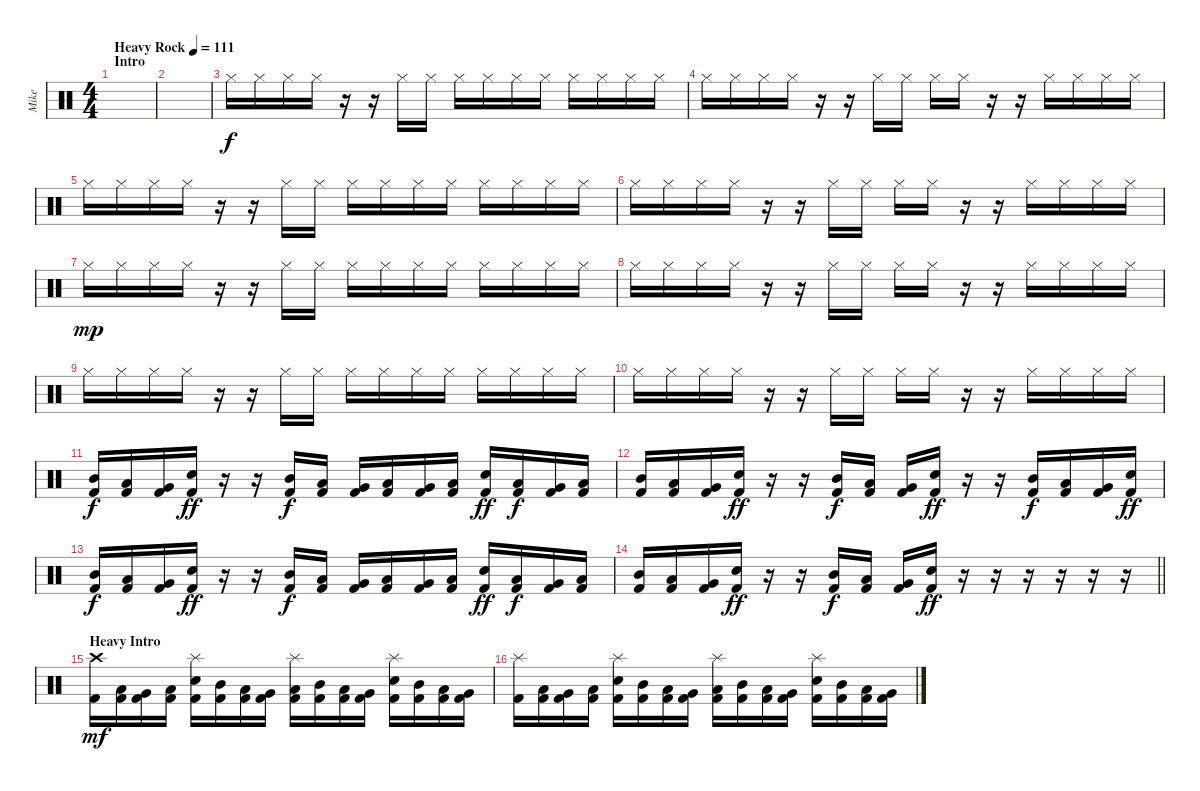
\track ("Mike" "Mike") {instrument percussion}
\staff {score}
\articulation defaults
\ts (4 4)
\section ("" "Intro")
\tempo (111 "Heavy Rock")
\clef neutral
\ks c
|
|
"Hi-Hat (closed)".16{balance 2} "Hi-Hat (closed)".16 "Hi-Hat (closed)".16 "Hi-Hat (closed)".16 r.16 r.16 "Hi-Hat (closed)".16 "Hi-Hat (closed)".16 "Hi-Hat (closed)".16 "Hi-Hat (closed)".16 "Hi-Hat (closed)".16 "Hi-Hat (closed)".16 "Hi-Hat (closed)".16 "Hi-Hat (closed)".16 "Hi-Hat (closed)".16 "Hi-Hat (closed)".16 |
"Hi-Hat (closed)".16 "Hi-Hat (closed)".16 "Hi-Hat (closed)".16 "Hi-Hat (closed)".16 r.16 r.16 "Hi-Hat (closed)".16 "Hi-Hat (closed)".16 "Hi-Hat (closed)".16 "Hi-Hat (closed)".16 r.16 r.16 "Hi-Hat (closed)".16 "Hi-Hat (closed)".16 "Hi-Hat (closed)".16 "Hi-Hat (closed)".16 |
"Hi-Hat (closed)".16 "Hi-Hat (closed)".16 "Hi-Hat (closed)".16 "Hi-Hat (closed)".16 r.16 r.16 "Hi-Hat (closed)".16 "Hi-Hat (closed)".16 "Hi-Hat (closed)".16 "Hi-Hat (closed)".16 "Hi-Hat (closed)".16 "Hi-Hat (closed)".16 "Hi-Hat (closed)".16 "Hi-Hat (closed)".16 "Hi-Hat (closed)".16 "Hi-Hat (closed)".16 |
"Hi-Hat (closed)".16 "Hi-Hat (closed)".16 "Hi-Hat (closed)".16 "Hi-Hat (closed)".16 r.16 r.16 "Hi-Hat (closed)".16 "Hi-Hat (closed)".16 "Hi-Hat (closed)".16 "Hi-Hat (closed)".16 r.16 r.16 "Hi-Hat (closed)".16 "Hi-Hat (closed)".16 "Hi-Hat (closed)".16 "Hi-Hat (closed)".16 |
"Hi-Hat (closed)".16{dy mp} "Hi-Hat (closed)".16 "Hi-Hat (closed)".16 "Hi-Hat (closed)".16 r.16 r.16 "Hi-Hat (closed)".16 "Hi-Hat (closed)".16 "Hi-Hat (closed)".16 "Hi-Hat (closed)".16 "Hi-Hat (closed)".16 "Hi-Hat (closed)".16 "Hi-Hat (closed)".16 "Hi-Hat (closed)".16 "Hi-Hat (closed)".16 "Hi-Hat (closed)".16 |
"Hi-Hat (closed)".16 "Hi-Hat (closed)".16 "Hi-Hat (closed)".16 "Hi-Hat (closed)".16 r.16 r.16 "Hi-Hat (closed)".16 "Hi-Hat (closed)".16 "Hi-Hat (closed)".16 "Hi-Hat (closed)".16 r.16 r.16 "Hi-Hat (closed)".16 "Hi-Hat (closed)".16 "Hi-Hat (closed)".16 "Hi-Hat (closed)".16 |
"Hi-Hat (closed)".16 "Hi-Hat (closed)".16 "Hi-Hat (closed)".16 "Hi-Hat (closed)".16 r.16 r.16 "Hi-Hat (closed)".16 "Hi-Hat (closed)".16 "Hi-Hat (closed)".16 "Hi-Hat (closed)".16 "Hi-Hat (closed)".16 "Hi-Hat (closed)".16 "Hi-Hat (closed)".16 "Hi-Hat (closed)".16 "Hi-Hat (closed)".16 "Hi-Hat (closed)".16 |
"Hi-Hat (closed)".16 "Hi-Hat (closed)".16 "Hi-Hat (closed)".16 "Hi-Hat (closed)".16 r.16 r.16 "Hi-Hat (closed)".16 "Hi-Hat (closed)".16 "Hi-Hat (closed)".16 "Hi-Hat (closed)".16 r.16 r.16 "Hi-Hat (closed)".16 "Hi-Hat (closed)".16 "Hi-Hat (closed)".16 "Hi-Hat (closed)".16 |
("Mid Tom (hit)" "Kick (hit) 2").16{dy f balance 8} ("Low Tom (hit)" "Kick (hit) 2").16 ("Very Low Tom (hit)" "Kick (hit) 2").16 ("Snare (hit) 2" "Kick (hit) 2").16{dy ff} r.16 r.16 ("Mid Tom (hit)" "Kick (hit) 2").16{dy f} ("Low Tom (hit)" "Kick (hit) 2").16 ("Very Low Tom (hit)" "Kick (hit) 2").16 ("Low Tom (hit)" "Kick (hit) 2").16 ("Very Low Tom (hit)" "Kick (hit) 2").16 ("Low Tom (hit)" "Kick (hit) 2").16 ("Snare (hit) 2" "Kick (hit) 2").16{dy ff} ("Low Tom (hit)" "Kick (hit) 2").16{dy f} ("Very Low Tom (hit)" "Kick (hit) 2").16 ("Low Tom (hit)" "Kick (hit) 2").16 |
("Mid Tom (hit)" "Kick (hit) 2").16 ("Low Tom (hit)" "Kick (hit) 2").16 ("Very Low Tom (hit)" "Kick (hit) 2").16 ("Snare (hit) 2" "Kick (hit) 2").16{dy ff} r.16 r.16 ("Mid Tom (hit)" "Kick (hit) 2").16{dy f} ("Low Tom (hit)" "Kick (hit) 2").16 ("Very Low Tom (hit)" "Kick (hit) 2").16 ("Snare (hit) 2" "Kick (hit) 2").16{dy ff} r.16 r.16 ("Mid Tom (hit)" "Kick (hit) 2").16{dy f} ("Low Tom (hit)" "Kick (hit) 2").16 ("Very Low Tom (hit)" "Kick (hit) 2").16 ("Snare (hit) 2" "Kick (hit) 2").16{dy ff} |
("Mid Tom (hit)" "Kick (hit) 2").16{dy f} ("Low Tom (hit)" "Kick (hit) 2").16 ("Very Low Tom (hit)" "Kick (hit) 2").16 ("Snare (hit) 2" "Kick (hit) 2").16{dy ff} r.16 r.16 ("Mid Tom (hit)" "Kick (hit) 2").16{dy f} ("Low Tom (hit)" "Kick (hit) 2").16 ("Very Low Tom (hit)" "Kick (hit) 2").16 ("Low Tom (hit)" "Kick (hit) 2").16 ("Very Low Tom (hit)" "Kick (hit) 2").16 ("Low Tom (hit)" "Kick (hit) 2").16 ("Snare (hit) 2" "Kick (hit) 2").16{dy ff} ("Low Tom (hit)" "Kick (hit) 2").16{dy f} ("Very Low Tom (hit)" "Kick (hit) 2").16 ("Low Tom (hit)" "Kick (hit) 2").16 |
\barLineRight lightlight
("Mid Tom (hit)" "Kick (hit) 2").16 ("Low Tom (hit)" "Kick (hit) 2").16 ("Very Low Tom (hit)" "Kick (hit) 2").16 ("Snare (hit) 2" "Kick (hit) 2").16{dy ff} r.16 r.16 ("Mid Tom (hit)" "Kick (hit) 2").16{dy f} ("Low Tom (hit)" "Kick (hit) 2").16 ("Very Low Tom (hit)" "Kick (hit) 2").16 ("Snare (hit) 2" "Kick (hit) 2").16{dy ff} r.16 r.16 r.16 r.16 r.16 r.16 |
\section ("" "Heavy Intro")
("Crash high (hit)" "Kick (hit) 2").16{dy mf} ("Low Tom (hit)" "Kick (hit) 2").16 ("Very Low Tom (hit)" "Kick (hit) 2").16 ("Low Tom (hit)" "Kick (hit) 2").16 ("Splash (hit)" "Snare (hit) 2" "Kick (hit) 2").16 ("Mid Tom (hit)" "Kick (hit) 2").16 ("Low Tom (hit)" "Kick (hit) 2").16 ("Very Low Tom (hit)" "Kick (hit) 2").16 ("Splash (hit)" "Low Tom (hit)" "Kick (hit) 2").16 ("Mid Tom (hit)" "Kick (hit) 2").16 ("Low Tom (hit)" "Kick (hit) 2").16 ("Very Low Tom (hit)" "Kick (hit) 2").16 ("Splash (hit)" "Snare (hit) 2" "Kick (hit) 2").16 ("Mid Tom (hit)" "Kick (hit) 2").16 ("Low Tom (hit)" "Kick (hit) 2").16 ("Very Low Tom (hit)" "Kick (hit) 2").16 |
("Splash (hit)" "Kick (hit) 2").16 ("Low Tom (hit)" "Kick (hit) 2").16 ("Very Low Tom (hit)" "Kick (hit) 2").16 ("Low Tom (hit)" "Kick (hit) 2").16 ("Splash (hit)" "Snare (hit) 2" "Kick (hit) 2").16 ("Mid Tom (hit)" "Kick (hit) 2").16 ("Low Tom (hit)" "Kick (hit) 2").16 ("Very Low Tom (hit)" "Kick (hit) 2").16 ("Splash (hit)" "Low Tom (hit)" "Kick (hit) 2").16 ("Mid Tom (hit)" "Kick (hit) 2").16 ("Low Tom (hit)" "Kick (hit) 2").16 ("Very Low Tom (hit)" "Kick (hit) 2").16 ("Splash (hit)" "Snare (hit) 2" "Kick (hit) 2").16 ("Mid Tom (hit)" "Kick (hit) 2").16 ("Low Tom (hit)" "Kick (hit) 2").16 ("Very Low Tom (hit)" "Kick (hit) 2").16
